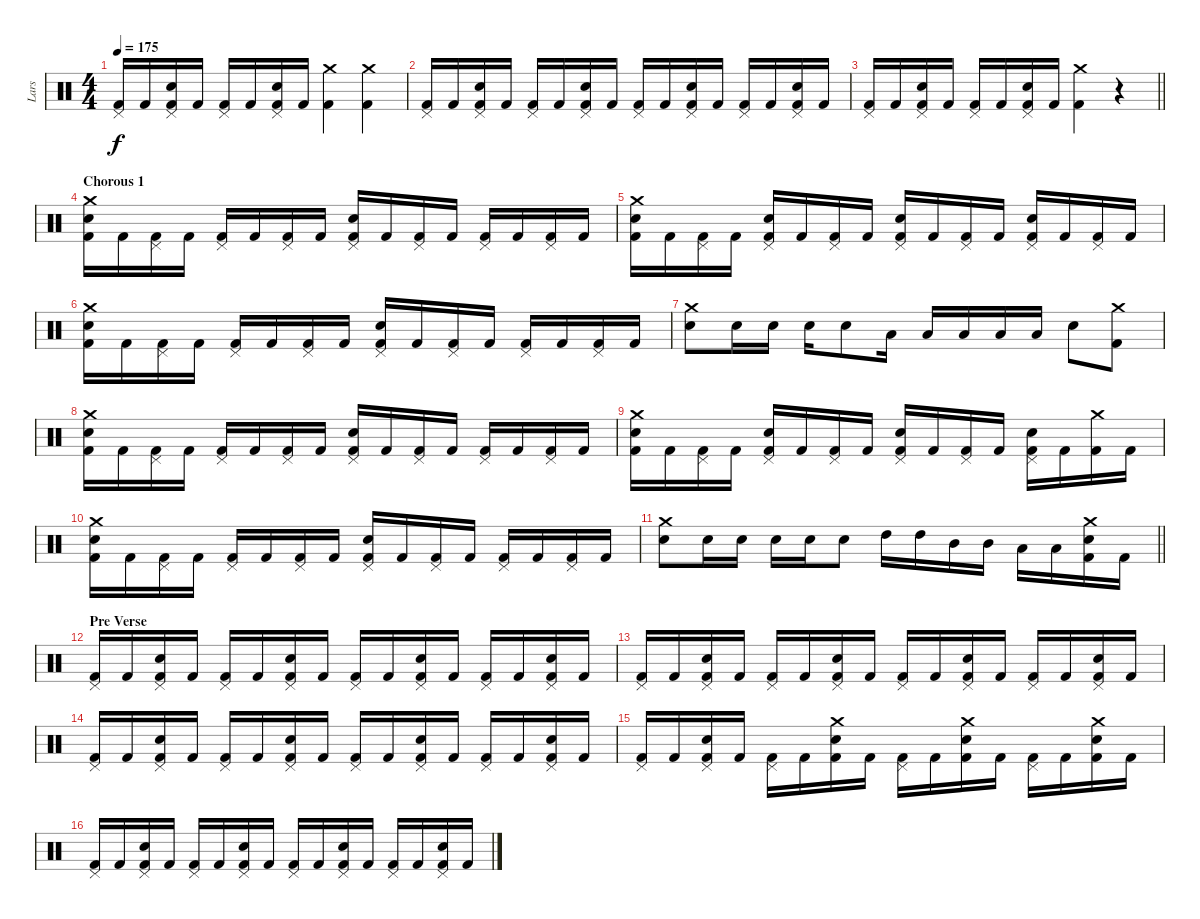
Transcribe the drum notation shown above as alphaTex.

\track ("Lars" "Lars") {instrument percussion}
\staff {score}
\articulation defaults
\ts (4 4)
\tempo 175
\clef neutral
\ks c
("Pedal Hi-Hat (hit)" "Kick (hit) 2").16{dy f} "Kick (hit) 2".16 ("Pedal Hi-Hat (hit)" "Electric Snare (hit)" "Kick (hit) 2").16 "Kick (hit) 2".16 ("Pedal Hi-Hat (hit)" "Kick (hit) 2").16 "Kick (hit) 2".16 ("Pedal Hi-Hat (hit)" "Electric Snare (hit)" "Kick (hit) 2").16 "Kick (hit) 2".16 ("Crash medium (hit)" "Kick (hit) 2").4 ("Crash medium (hit)" "Kick (hit) 2").4 |
("Pedal Hi-Hat (hit)" "Kick (hit) 2").16 "Kick (hit) 2".16 ("Pedal Hi-Hat (hit)" "Electric Snare (hit)" "Kick (hit) 2").16 "Kick (hit) 2".16 ("Pedal Hi-Hat (hit)" "Kick (hit) 2").16 "Kick (hit) 2".16 ("Pedal Hi-Hat (hit)" "Electric Snare (hit)" "Kick (hit) 2").16 "Kick (hit) 2".16 ("Pedal Hi-Hat (hit)" "Kick (hit) 2").16 "Kick (hit) 2".16 ("Pedal Hi-Hat (hit)" "Electric Snare (hit)" "Kick (hit) 2").16 "Kick (hit) 2".16 ("Pedal Hi-Hat (hit)" "Kick (hit) 2").16 "Kick (hit) 2".16 ("Pedal Hi-Hat (hit)" "Electric Snare (hit)" "Kick (hit) 2").16 "Kick (hit) 2".16 |
\barLineRight lightlight
("Pedal Hi-Hat (hit)" "Kick (hit) 2").16 "Kick (hit) 2".16 ("Pedal Hi-Hat (hit)" "Electric Snare (hit)" "Kick (hit) 2").16 "Kick (hit) 2".16 ("Pedal Hi-Hat (hit)" "Kick (hit) 2").16 "Kick (hit) 2".16 ("Pedal Hi-Hat (hit)" "Electric Snare (hit)" "Kick (hit) 2").16 "Kick (hit) 2".16 ("Crash medium (hit)" "Kick (hit) 2").4 r.4 |
\section ("" "Chorous 1")
("Crash medium (hit)" "Electric Snare (hit)" "Kick (hit) 2").16 "Kick (hit) 2".16 ("Pedal Hi-Hat (hit)" "Kick (hit) 2").16 "Kick (hit) 2".16 ("Pedal Hi-Hat (hit)" "Kick (hit) 2").16 "Kick (hit) 2".16 ("Pedal Hi-Hat (hit)" "Kick (hit) 2").16 "Kick (hit) 2".16 ("Pedal Hi-Hat (hit)" "Electric Snare (hit)" "Kick (hit) 2").16 "Kick (hit) 2".16 ("Pedal Hi-Hat (hit)" "Kick (hit) 2").16 "Kick (hit) 2".16 ("Pedal Hi-Hat (hit)" "Kick (hit) 2").16 "Kick (hit) 2".16 ("Pedal Hi-Hat (hit)" "Kick (hit) 2").16 "Kick (hit) 2".16 |
("Crash medium (hit)" "Electric Snare (hit)" "Kick (hit) 2").16 "Kick (hit) 2".16 ("Pedal Hi-Hat (hit)" "Kick (hit) 2").16 "Kick (hit) 2".16 ("Pedal Hi-Hat (hit)" "Electric Snare (hit)" "Kick (hit) 2").16 "Kick (hit) 2".16 ("Pedal Hi-Hat (hit)" "Kick (hit) 2").16 "Kick (hit) 2".16 ("Pedal Hi-Hat (hit)" "Electric Snare (hit)" "Kick (hit) 2").16 "Kick (hit) 2".16 ("Pedal Hi-Hat (hit)" "Kick (hit) 2").16 "Kick (hit) 2".16 ("Pedal Hi-Hat (hit)" "Electric Snare (hit)" "Kick (hit) 2").16 "Kick (hit) 2".16 ("Pedal Hi-Hat (hit)" "Kick (hit) 2").16 "Kick (hit) 2".16 |
("Crash medium (hit)" "Electric Snare (hit)" "Kick (hit) 2").16 "Kick (hit) 2".16 ("Pedal Hi-Hat (hit)" "Kick (hit) 2").16 "Kick (hit) 2".16 ("Pedal Hi-Hat (hit)" "Kick (hit) 2").16 "Kick (hit) 2".16 ("Pedal Hi-Hat (hit)" "Kick (hit) 2").16 "Kick (hit) 2".16 ("Pedal Hi-Hat (hit)" "Electric Snare (hit)" "Kick (hit) 2").16 "Kick (hit) 2".16 ("Pedal Hi-Hat (hit)" "Kick (hit) 2").16 "Kick (hit) 2".16 ("Pedal Hi-Hat (hit)" "Kick (hit) 2").16 "Kick (hit) 2".16 ("Pedal Hi-Hat (hit)" "Kick (hit) 2").16 "Kick (hit) 2".16 |
("Crash medium (hit)" "Electric Snare (hit)").8 "Electric Snare (hit)".16 "Electric Snare (hit)".16 "Electric Snare (hit)".16 "Electric Snare (hit)".8 "Low Tom (hit)".16 "Low Tom (hit)".16 "Low Tom (hit)".16 "Low Tom (hit)".16 "Low Tom (hit)".16 "Electric Snare (hit)".8 ("Crash medium (hit)" "Kick (hit) 2").8 |
("Crash medium (hit)" "Electric Snare (hit)" "Kick (hit) 2").16 "Kick (hit) 2".16 ("Pedal Hi-Hat (hit)" "Kick (hit) 2").16 "Kick (hit) 2".16 ("Pedal Hi-Hat (hit)" "Kick (hit) 2").16 "Kick (hit) 2".16 ("Pedal Hi-Hat (hit)" "Kick (hit) 2").16 "Kick (hit) 2".16 ("Pedal Hi-Hat (hit)" "Electric Snare (hit)" "Kick (hit) 2").16 "Kick (hit) 2".16 ("Pedal Hi-Hat (hit)" "Kick (hit) 2").16 "Kick (hit) 2".16 ("Pedal Hi-Hat (hit)" "Kick (hit) 2").16 "Kick (hit) 2".16 ("Pedal Hi-Hat (hit)" "Kick (hit) 2").16 "Kick (hit) 2".16 |
("Crash medium (hit)" "Electric Snare (hit)" "Kick (hit) 2").16 "Kick (hit) 2".16 ("Pedal Hi-Hat (hit)" "Kick (hit) 2").16 "Kick (hit) 2".16 ("Pedal Hi-Hat (hit)" "Electric Snare (hit)" "Kick (hit) 2").16 "Kick (hit) 2".16 ("Pedal Hi-Hat (hit)" "Kick (hit) 2").16 "Kick (hit) 2".16 ("Pedal Hi-Hat (hit)" "Electric Snare (hit)" "Kick (hit) 2").16 "Kick (hit) 2".16 ("Pedal Hi-Hat (hit)" "Kick (hit) 2").16 "Kick (hit) 2".16 ("Pedal Hi-Hat (hit)" "Electric Snare (hit)" "Kick (hit) 2").16 "Kick (hit) 2".16 ("Crash medium (hit)" "Kick (hit) 2").16 "Kick (hit) 2".16 |
("Crash medium (hit)" "Electric Snare (hit)" "Kick (hit) 2").16 "Kick (hit) 2".16 ("Pedal Hi-Hat (hit)" "Kick (hit) 2").16 "Kick (hit) 2".16 ("Pedal Hi-Hat (hit)" "Kick (hit) 2").16 "Kick (hit) 2".16 ("Pedal Hi-Hat (hit)" "Kick (hit) 2").16 "Kick (hit) 2".16 ("Pedal Hi-Hat (hit)" "Electric Snare (hit)" "Kick (hit) 2").16 "Kick (hit) 2".16 ("Pedal Hi-Hat (hit)" "Kick (hit) 2").16 "Kick (hit) 2".16 ("Pedal Hi-Hat (hit)" "Kick (hit) 2").16 "Kick (hit) 2".16 ("Pedal Hi-Hat (hit)" "Kick (hit) 2").16 "Kick (hit) 2".16 |
\barLineRight lightlight
("Crash medium (hit)" "Electric Snare (hit)").8 "Electric Snare (hit)".16 "Electric Snare (hit)".16 "Electric Snare (hit)".16 "Electric Snare (hit)".16 "Electric Snare (hit)".8 "High Tom (hit)".16 "High Tom (hit)".16 "Mid Tom (hit)".16 "Mid Tom (hit)".16 "Low Tom (hit)".16 "Low Tom (hit)".16 ("Crash medium (hit)" "Electric Snare (hit)" "Kick (hit) 2").16 "Kick (hit) 2".16 |
\section ("" "Pre Verse")
("Pedal Hi-Hat (hit)" "Kick (hit) 2").16 "Kick (hit) 2".16 ("Pedal Hi-Hat (hit)" "Electric Snare (hit)" "Kick (hit) 2").16 "Kick (hit) 2".16 ("Pedal Hi-Hat (hit)" "Kick (hit) 2").16 "Kick (hit) 2".16 ("Pedal Hi-Hat (hit)" "Electric Snare (hit)" "Kick (hit) 2").16 "Kick (hit) 2".16 ("Pedal Hi-Hat (hit)" "Kick (hit) 2").16 "Kick (hit) 2".16 ("Pedal Hi-Hat (hit)" "Electric Snare (hit)" "Kick (hit) 2").16 "Kick (hit) 2".16 ("Pedal Hi-Hat (hit)" "Kick (hit) 2").16 "Kick (hit) 2".16 ("Pedal Hi-Hat (hit)" "Electric Snare (hit)" "Kick (hit) 2").16 "Kick (hit) 2".16 |
("Pedal Hi-Hat (hit)" "Kick (hit) 2").16 "Kick (hit) 2".16 ("Pedal Hi-Hat (hit)" "Electric Snare (hit)" "Kick (hit) 2").16 "Kick (hit) 2".16 ("Pedal Hi-Hat (hit)" "Kick (hit) 2").16 "Kick (hit) 2".16 ("Pedal Hi-Hat (hit)" "Electric Snare (hit)" "Kick (hit) 2").16 "Kick (hit) 2".16 ("Pedal Hi-Hat (hit)" "Kick (hit) 2").16 "Kick (hit) 2".16 ("Pedal Hi-Hat (hit)" "Electric Snare (hit)" "Kick (hit) 2").16 "Kick (hit) 2".16 ("Pedal Hi-Hat (hit)" "Kick (hit) 2").16 "Kick (hit) 2".16 ("Pedal Hi-Hat (hit)" "Electric Snare (hit)" "Kick (hit) 2").16 "Kick (hit) 2".16 |
("Pedal Hi-Hat (hit)" "Kick (hit) 2").16 "Kick (hit) 2".16 ("Pedal Hi-Hat (hit)" "Electric Snare (hit)" "Kick (hit) 2").16 "Kick (hit) 2".16 ("Pedal Hi-Hat (hit)" "Kick (hit) 2").16 "Kick (hit) 2".16 ("Pedal Hi-Hat (hit)" "Electric Snare (hit)" "Kick (hit) 2").16 "Kick (hit) 2".16 ("Pedal Hi-Hat (hit)" "Kick (hit) 2").16 "Kick (hit) 2".16 ("Pedal Hi-Hat (hit)" "Electric Snare (hit)" "Kick (hit) 2").16 "Kick (hit) 2".16 ("Pedal Hi-Hat (hit)" "Kick (hit) 2").16 "Kick (hit) 2".16 ("Pedal Hi-Hat (hit)" "Electric Snare (hit)" "Kick (hit) 2").16 "Kick (hit) 2".16 |
("Pedal Hi-Hat (hit)" "Kick (hit) 2").16 "Kick (hit) 2".16 ("Pedal Hi-Hat (hit)" "Electric Snare (hit)" "Kick (hit) 2").16 "Kick (hit) 2".16 ("Pedal Hi-Hat (hit)" "Kick (hit) 2").16 "Kick (hit) 2".16 ("Crash medium (hit)" "Electric Snare (hit)" "Kick (hit) 2").16 "Kick (hit) 2".16 ("Pedal Hi-Hat (hit)" "Kick (hit) 2").16 "Kick (hit) 2".16 ("Crash medium (hit)" "Electric Snare (hit)" "Kick (hit) 2").16 "Kick (hit) 2".16 ("Pedal Hi-Hat (hit)" "Kick (hit) 2").16 "Kick (hit) 2".16 ("Crash medium (hit)" "Electric Snare (hit)" "Kick (hit) 2").16 "Kick (hit) 2".16 |
("Pedal Hi-Hat (hit)" "Kick (hit) 2").16 "Kick (hit) 2".16 ("Pedal Hi-Hat (hit)" "Electric Snare (hit)" "Kick (hit) 2").16 "Kick (hit) 2".16 ("Pedal Hi-Hat (hit)" "Kick (hit) 2").16 "Kick (hit) 2".16 ("Pedal Hi-Hat (hit)" "Electric Snare (hit)" "Kick (hit) 2").16 "Kick (hit) 2".16 ("Pedal Hi-Hat (hit)" "Kick (hit) 2").16 "Kick (hit) 2".16 ("Pedal Hi-Hat (hit)" "Electric Snare (hit)" "Kick (hit) 2").16 "Kick (hit) 2".16 ("Pedal Hi-Hat (hit)" "Kick (hit) 2").16 "Kick (hit) 2".16 ("Pedal Hi-Hat (hit)" "Electric Snare (hit)" "Kick (hit) 2").16 "Kick (hit) 2".16
